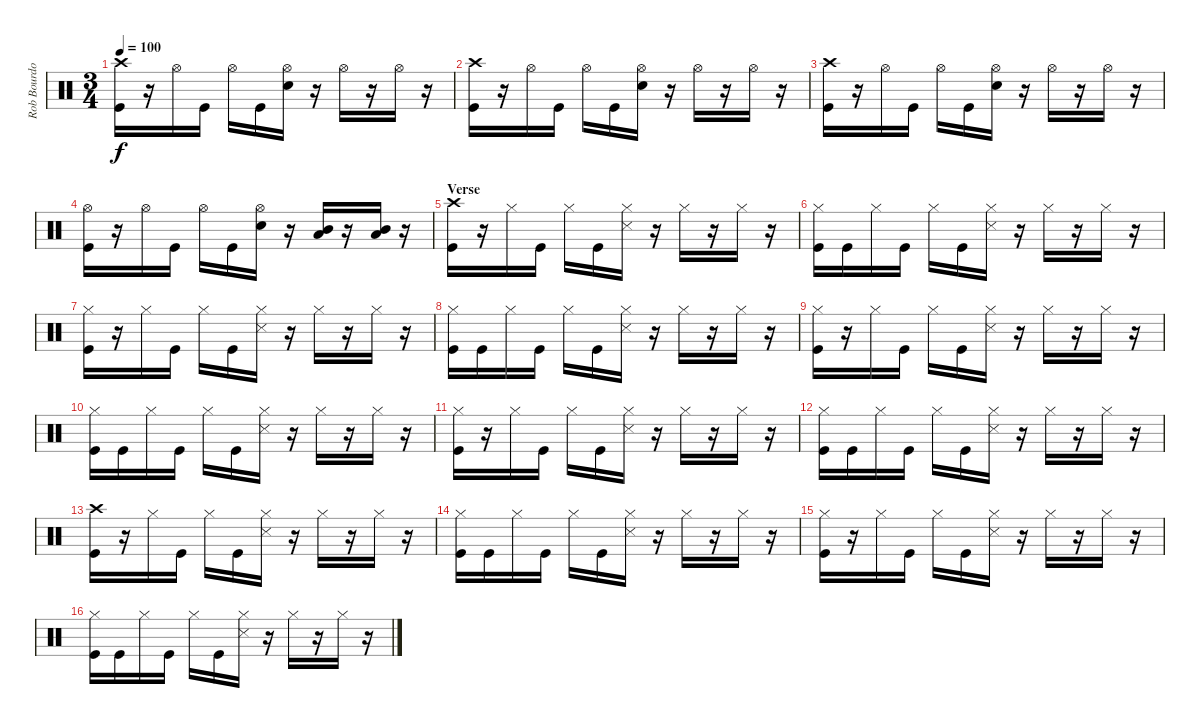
\track ("Rob Bourdon" "Rob Bourdo") {instrument percussion}
\staff {score}
\articulation defaults
\ts (3 4)
\tempo 100
\clef neutral
\ks c
("Crash high (hit)" "Kick (hit)").16{dy f} r.16 "Hi-Hat (open)".16 "Kick (hit)".16 "Hi-Hat (open)".16 "Kick (hit)".16 ("Hi-Hat (open)" "Snare (hit) 2").16 r.16 "Hi-Hat (open)".16 r.16 "Hi-Hat (open)".16 r.16 |
("Crash high (hit)" "Kick (hit)").16 r.16 "Hi-Hat (open)".16 "Kick (hit)".16 "Hi-Hat (open)".16 "Kick (hit)".16 ("Hi-Hat (open)" "Snare (hit) 2").16 r.16 "Hi-Hat (open)".16 r.16 "Hi-Hat (open)".16 r.16 |
("Crash high (hit)" "Kick (hit)").16 r.16 "Hi-Hat (open)".16 "Kick (hit)".16 "Hi-Hat (open)".16 "Kick (hit)".16 ("Hi-Hat (open)" "Snare (hit) 2").16 r.16 "Hi-Hat (open)".16 r.16 "Hi-Hat (open)".16 r.16 |
("Hi-Hat (open)" "Kick (hit)").16 r.16 "Hi-Hat (open)".16 "Kick (hit)".16 "Hi-Hat (open)".16 "Kick (hit)".16 ("Hi-Hat (open)" "Snare (hit) 2").16 r.16 ("Mid Tom (hit)" "Low Tom (hit)").16 r.16 ("Mid Tom (hit)" "Low Tom (hit)").16 r.16 |
\section ("" "Verse")
("Crash high (hit)" "Kick (hit)").16 r.16 "Hi-Hat (closed)".16 "Kick (hit)".16 "Hi-Hat (closed)".16 "Kick (hit)".16 ("Hi-Hat (closed)" "Snare (side stick) 3").16 r.16 "Hi-Hat (closed)".16 r.16 "Hi-Hat (closed)".16 r.16 |
("Hi-Hat (closed)" "Kick (hit)").16 "Kick (hit)".16 "Hi-Hat (closed)".16 "Kick (hit)".16 "Hi-Hat (closed)".16 "Kick (hit)".16 ("Hi-Hat (closed)" "Snare (side stick) 3").16 r.16 "Hi-Hat (closed)".16 r.16 "Hi-Hat (closed)".16 r.16 |
("Hi-Hat (closed)" "Kick (hit)").16 r.16 "Hi-Hat (closed)".16 "Kick (hit)".16 "Hi-Hat (closed)".16 "Kick (hit)".16 ("Hi-Hat (closed)" "Snare (side stick) 3").16 r.16 "Hi-Hat (closed)".16 r.16 "Hi-Hat (closed)".16 r.16 |
("Hi-Hat (closed)" "Kick (hit)").16 "Kick (hit)".16 "Hi-Hat (closed)".16 "Kick (hit)".16 "Hi-Hat (closed)".16 "Kick (hit)".16 ("Hi-Hat (closed)" "Snare (side stick) 3").16 r.16 "Hi-Hat (closed)".16 r.16 "Hi-Hat (closed)".16 r.16 |
("Hi-Hat (closed)" "Kick (hit)").16 r.16 "Hi-Hat (closed)".16 "Kick (hit)".16 "Hi-Hat (closed)".16 "Kick (hit)".16 ("Hi-Hat (closed)" "Snare (side stick) 3").16 r.16 "Hi-Hat (closed)".16 r.16 "Hi-Hat (closed)".16 r.16 |
("Hi-Hat (closed)" "Kick (hit)").16 "Kick (hit)".16 "Hi-Hat (closed)".16 "Kick (hit)".16 "Hi-Hat (closed)".16 "Kick (hit)".16 ("Hi-Hat (closed)" "Snare (side stick) 3").16 r.16 "Hi-Hat (closed)".16 r.16 "Hi-Hat (closed)".16 r.16 |
("Hi-Hat (closed)" "Kick (hit)").16 r.16 "Hi-Hat (closed)".16 "Kick (hit)".16 "Hi-Hat (closed)".16 "Kick (hit)".16 ("Hi-Hat (closed)" "Snare (side stick) 3").16 r.16 "Hi-Hat (closed)".16 r.16 "Hi-Hat (closed)".16 r.16 |
("Hi-Hat (closed)" "Kick (hit)").16 "Kick (hit)".16 "Hi-Hat (closed)".16 "Kick (hit)".16 "Hi-Hat (closed)".16 "Kick (hit)".16 ("Hi-Hat (closed)" "Snare (side stick) 3").16 r.16 "Hi-Hat (closed)".16 r.16 "Hi-Hat (closed)".16 r.16 |
("Crash high (hit)" "Kick (hit)").16 r.16 "Hi-Hat (closed)".16 "Kick (hit)".16 "Hi-Hat (closed)".16 "Kick (hit)".16 ("Hi-Hat (closed)" "Snare (side stick) 3").16 r.16 "Hi-Hat (closed)".16 r.16 "Hi-Hat (closed)".16 r.16 |
("Hi-Hat (closed)" "Kick (hit)").16 "Kick (hit)".16 "Hi-Hat (closed)".16 "Kick (hit)".16 "Hi-Hat (closed)".16 "Kick (hit)".16 ("Hi-Hat (closed)" "Snare (side stick) 3").16 r.16 "Hi-Hat (closed)".16 r.16 "Hi-Hat (closed)".16 r.16 |
("Hi-Hat (closed)" "Kick (hit)").16 r.16 "Hi-Hat (closed)".16 "Kick (hit)".16 "Hi-Hat (closed)".16 "Kick (hit)".16 ("Hi-Hat (closed)" "Snare (side stick) 3").16 r.16 "Hi-Hat (closed)".16 r.16 "Hi-Hat (closed)".16 r.16 |
("Hi-Hat (closed)" "Kick (hit)").16 "Kick (hit)".16 "Hi-Hat (closed)".16 "Kick (hit)".16 "Hi-Hat (closed)".16 "Kick (hit)".16 ("Hi-Hat (closed)" "Snare (side stick) 3").16 r.16 "Hi-Hat (closed)".16 r.16 "Hi-Hat (closed)".16 r.16
